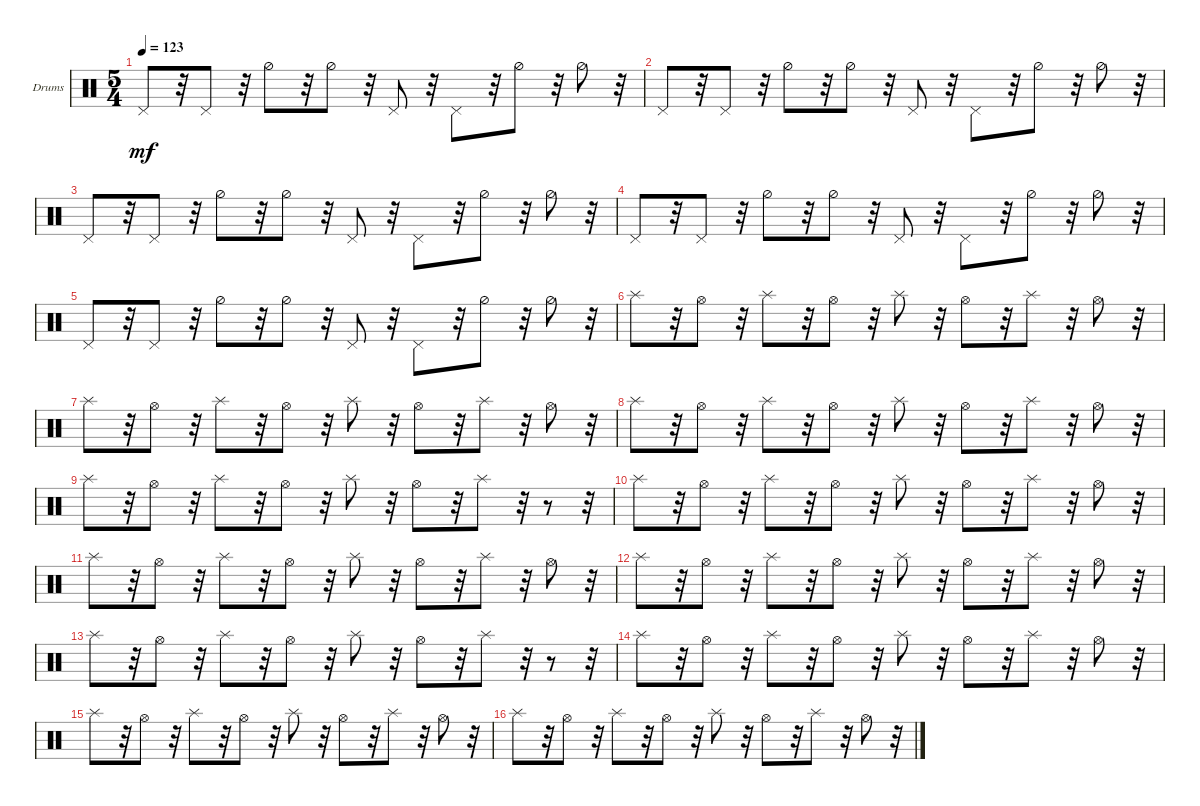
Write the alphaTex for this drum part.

\defaultSystemsLayout 4
\bracketExtendMode groupsimilarinstruments
\firstSystemTrackNameOrientation horizontal
\otherSystemsTrackNameOrientation horizontal
\track ("Drumkit" "Drums") {instrument percussion}
\staff {score}
\articulation defaults
\ts (5 4)
\tempo 123
\clef neutral
\ks c "Pedal Hi-Hat (hit)".8{dy mf}
r.32 "Pedal Hi-Hat (hit)".8 r.32 "Hi-Hat (half)".8 r.32 "Hi-Hat (half)".8 r.32 "Pedal Hi-Hat (hit)".8 r.32 "Pedal Hi-Hat (hit)".8 r.32 "Hi-Hat (half)".8 r.32 "Hi-Hat (half)".8 r.32 |
"Pedal Hi-Hat (hit)".8 r.32 "Pedal Hi-Hat (hit)".8 r.32 "Hi-Hat (half)".8 r.32 "Hi-Hat (half)".8 r.32 "Pedal Hi-Hat (hit)".8 r.32 "Pedal Hi-Hat (hit)".8 r.32 "Hi-Hat (half)".8 r.32 "Hi-Hat (half)".8 r.32 |
"Pedal Hi-Hat (hit)".8 r.32 "Pedal Hi-Hat (hit)".8 r.32 "Hi-Hat (half)".8 r.32 "Hi-Hat (half)".8 r.32 "Pedal Hi-Hat (hit)".8 r.32 "Pedal Hi-Hat (hit)".8 r.32 "Hi-Hat (half)".8 r.32 "Hi-Hat (half)".8 r.32 |
"Pedal Hi-Hat (hit)".8 r.32 "Pedal Hi-Hat (hit)".8 r.32 "Hi-Hat (half)".8 r.32 "Hi-Hat (half)".8 r.32 "Pedal Hi-Hat (hit)".8 r.32 "Pedal Hi-Hat (hit)".8 r.32 "Hi-Hat (half)".8 r.32 "Hi-Hat (half)".8 r.32 |
"Pedal Hi-Hat (hit)".8 r.32 "Pedal Hi-Hat (hit)".8 r.32 "Hi-Hat (half)".8 r.32 "Hi-Hat (half)".8 r.32 "Pedal Hi-Hat (hit)".8 r.32 "Pedal Hi-Hat (hit)".8 r.32 "Hi-Hat (half)".8 r.32 "Hi-Hat (half)".8 r.32 |
"Splash (hit)".8 r.32 "Hi-Hat (open)".8 r.32 "Splash (hit)".8 r.32 "Hi-Hat (open)".8 r.32 "Splash (hit)".8 r.32 "Hi-Hat (open)".8 r.32 "Splash (hit)".8 r.32 "Hi-Hat (open)".8 r.32 |
"Splash (hit)".8 r.32 "Hi-Hat (open)".8 r.32 "Splash (hit)".8 r.32 "Hi-Hat (open)".8 r.32 "Splash (hit)".8 r.32 "Hi-Hat (open)".8 r.32 "Splash (hit)".8 r.32 "Hi-Hat (open)".8 r.32 |
"Splash (hit)".8 r.32 "Hi-Hat (open)".8 r.32 "Splash (hit)".8 r.32 "Hi-Hat (open)".8 r.32 "Splash (hit)".8 r.32 "Hi-Hat (open)".8 r.32 "Splash (hit)".8 r.32 "Hi-Hat (open)".8 r.32 |
"Splash (hit)".8 r.32 "Hi-Hat (open)".8 r.32 "Splash (hit)".8 r.32 "Hi-Hat (open)".8 r.32 "Splash (hit)".8 r.32 "Hi-Hat (open)".8 r.32 "Splash (hit)".8 r.32 r.8 r.32 |
"Splash (hit)".8 r.32 "Hi-Hat (open)".8 r.32 "Splash (hit)".8 r.32 "Hi-Hat (open)".8 r.32 "Splash (hit)".8 r.32 "Hi-Hat (open)".8 r.32 "Splash (hit)".8 r.32 "Hi-Hat (open)".8 r.32 |
"Splash (hit)".8 r.32 "Hi-Hat (open)".8 r.32 "Splash (hit)".8 r.32 "Hi-Hat (open)".8 r.32 "Splash (hit)".8 r.32 "Hi-Hat (open)".8 r.32 "Splash (hit)".8 r.32 "Hi-Hat (open)".8 r.32 |
"Splash (hit)".8 r.32 "Hi-Hat (open)".8 r.32 "Splash (hit)".8 r.32 "Hi-Hat (open)".8 r.32 "Splash (hit)".8 r.32 "Hi-Hat (open)".8 r.32 "Splash (hit)".8 r.32 "Hi-Hat (open)".8 r.32 |
"Splash (hit)".8 r.32 "Hi-Hat (open)".8 r.32 "Splash (hit)".8 r.32 "Hi-Hat (open)".8 r.32 "Splash (hit)".8 r.32 "Hi-Hat (open)".8 r.32 "Splash (hit)".8 r.32 r.8 r.32 |
"Splash (hit)".8 r.32 "Hi-Hat (open)".8 r.32 "Splash (hit)".8 r.32 "Hi-Hat (open)".8 r.32 "Splash (hit)".8 r.32 "Hi-Hat (open)".8 r.32 "Splash (hit)".8 r.32 "Hi-Hat (open)".8 r.32 |
"Splash (hit)".8 r.32 "Hi-Hat (open)".8 r.32 "Splash (hit)".8 r.32 "Hi-Hat (open)".8 r.32 "Splash (hit)".8 r.32 "Hi-Hat (open)".8 r.32 "Splash (hit)".8 r.32 "Hi-Hat (open)".8 r.32 |
"Splash (hit)".8 r.32 "Hi-Hat (open)".8 r.32 "Splash (hit)".8 r.32 "Hi-Hat (open)".8 r.32 "Splash (hit)".8 r.32 "Hi-Hat (open)".8 r.32 "Splash (hit)".8 r.32 "Hi-Hat (open)".8 r.32
